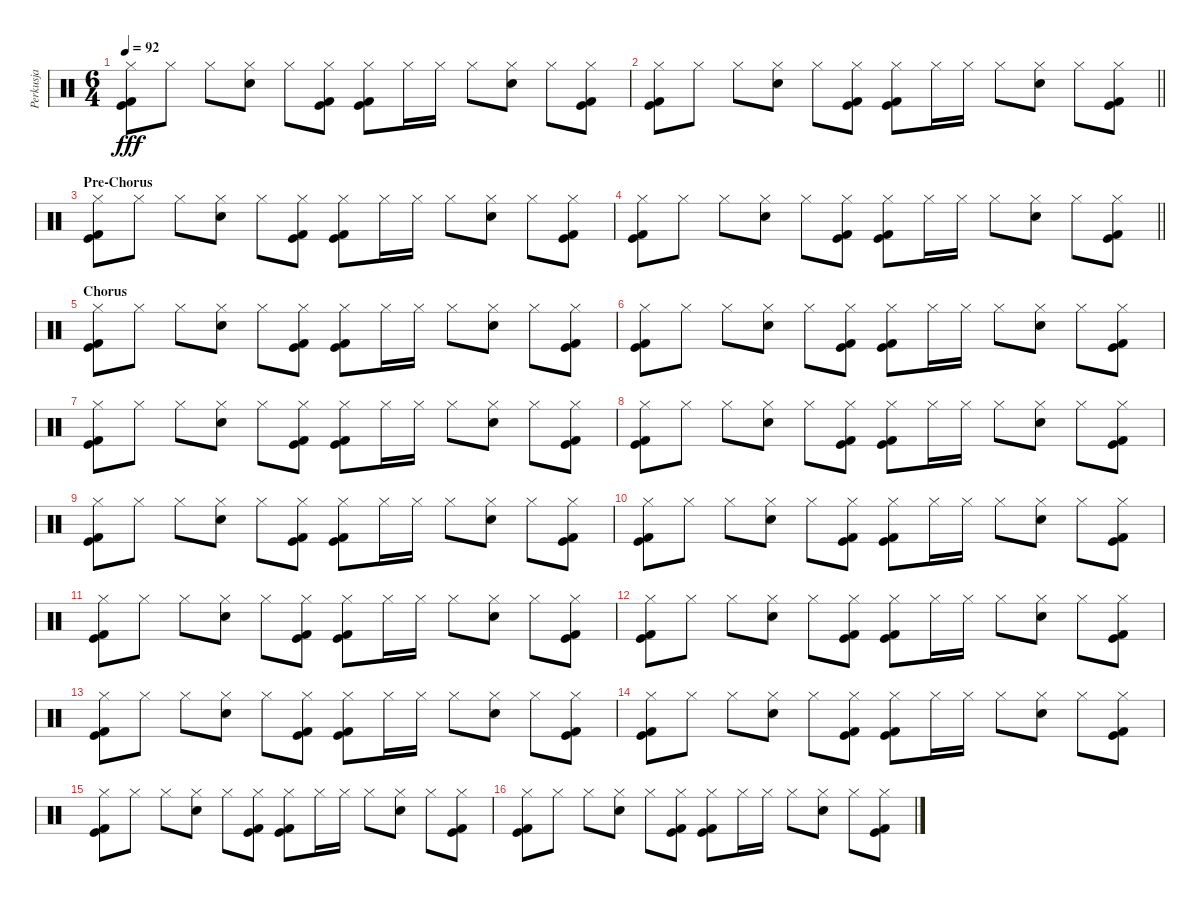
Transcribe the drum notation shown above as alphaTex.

\track ("Perkusja" "Perkusja") {instrument percussion}
\staff {score}
\articulation defaults
\ts (6 4)
\tempo 92
\clef neutral
\ks c
("Hi-Hat (closed)" "Kick (hit)" "Kick (hit) 2").8{dy fff} "Hi-Hat (closed)".8 "Hi-Hat (closed)".8 ("Hi-Hat (closed)" "Electric Snare (hit)").8 "Hi-Hat (closed)".8 ("Hi-Hat (closed)" "Kick (hit)" "Kick (hit) 2").8 ("Hi-Hat (closed)" "Kick (hit)" "Kick (hit) 2").8 "Hi-Hat (closed)".16 "Hi-Hat (closed)".16 "Hi-Hat (closed)".8 ("Hi-Hat (closed)" "Electric Snare (hit)").8 "Hi-Hat (closed)".8 ("Hi-Hat (closed)" "Kick (hit)" "Kick (hit) 2").8 |
\barLineRight lightlight
("Hi-Hat (closed)" "Kick (hit)" "Kick (hit) 2").8 "Hi-Hat (closed)".8 "Hi-Hat (closed)".8 ("Hi-Hat (closed)" "Electric Snare (hit)").8 "Hi-Hat (closed)".8 ("Hi-Hat (closed)" "Kick (hit)" "Kick (hit) 2").8 ("Hi-Hat (closed)" "Kick (hit)" "Kick (hit) 2").8 "Hi-Hat (closed)".16 "Hi-Hat (closed)".16 "Hi-Hat (closed)".8 ("Hi-Hat (closed)" "Electric Snare (hit)").8 "Hi-Hat (closed)".8 ("Hi-Hat (closed)" "Kick (hit)" "Kick (hit) 2").8 |
\section ("" "Pre-Chorus")
("Hi-Hat (closed)" "Kick (hit)" "Kick (hit) 2").8 "Hi-Hat (closed)".8 "Hi-Hat (closed)".8 ("Hi-Hat (closed)" "Electric Snare (hit)").8 "Hi-Hat (closed)".8 ("Hi-Hat (closed)" "Kick (hit)" "Kick (hit) 2").8 ("Hi-Hat (closed)" "Kick (hit)" "Kick (hit) 2").8 "Hi-Hat (closed)".16 "Hi-Hat (closed)".16 "Hi-Hat (closed)".8 ("Hi-Hat (closed)" "Electric Snare (hit)").8 "Hi-Hat (closed)".8 ("Hi-Hat (closed)" "Kick (hit)" "Kick (hit) 2").8 |
\barLineRight lightlight
("Hi-Hat (closed)" "Kick (hit)" "Kick (hit) 2").8 "Hi-Hat (closed)".8 "Hi-Hat (closed)".8 ("Hi-Hat (closed)" "Electric Snare (hit)").8 "Hi-Hat (closed)".8 ("Hi-Hat (closed)" "Kick (hit)" "Kick (hit) 2").8 ("Hi-Hat (closed)" "Kick (hit)" "Kick (hit) 2").8 "Hi-Hat (closed)".16 "Hi-Hat (closed)".16 "Hi-Hat (closed)".8 ("Hi-Hat (closed)" "Electric Snare (hit)").8 "Hi-Hat (closed)".8 ("Hi-Hat (closed)" "Kick (hit)" "Kick (hit) 2").8 |
\section ("" "Chorus")
("Hi-Hat (closed)" "Kick (hit)" "Kick (hit) 2").8 "Hi-Hat (closed)".8 "Hi-Hat (closed)".8 ("Hi-Hat (closed)" "Electric Snare (hit)").8 "Hi-Hat (closed)".8 ("Hi-Hat (closed)" "Kick (hit)" "Kick (hit) 2").8 ("Hi-Hat (closed)" "Kick (hit)" "Kick (hit) 2").8 "Hi-Hat (closed)".16 "Hi-Hat (closed)".16 "Hi-Hat (closed)".8 ("Hi-Hat (closed)" "Electric Snare (hit)").8 "Hi-Hat (closed)".8 ("Hi-Hat (closed)" "Kick (hit)" "Kick (hit) 2").8 |
("Hi-Hat (closed)" "Kick (hit)" "Kick (hit) 2").8 "Hi-Hat (closed)".8 "Hi-Hat (closed)".8 ("Hi-Hat (closed)" "Electric Snare (hit)").8 "Hi-Hat (closed)".8 ("Hi-Hat (closed)" "Kick (hit)" "Kick (hit) 2").8 ("Hi-Hat (closed)" "Kick (hit)" "Kick (hit) 2").8 "Hi-Hat (closed)".16 "Hi-Hat (closed)".16 "Hi-Hat (closed)".8 ("Hi-Hat (closed)" "Electric Snare (hit)").8 "Hi-Hat (closed)".8 ("Hi-Hat (closed)" "Kick (hit)" "Kick (hit) 2").8 |
("Hi-Hat (closed)" "Kick (hit)" "Kick (hit) 2").8 "Hi-Hat (closed)".8 "Hi-Hat (closed)".8 ("Hi-Hat (closed)" "Electric Snare (hit)").8 "Hi-Hat (closed)".8 ("Hi-Hat (closed)" "Kick (hit)" "Kick (hit) 2").8 ("Hi-Hat (closed)" "Kick (hit)" "Kick (hit) 2").8 "Hi-Hat (closed)".16 "Hi-Hat (closed)".16 "Hi-Hat (closed)".8 ("Hi-Hat (closed)" "Electric Snare (hit)").8 "Hi-Hat (closed)".8 ("Hi-Hat (closed)" "Kick (hit)" "Kick (hit) 2").8 |
("Hi-Hat (closed)" "Kick (hit)" "Kick (hit) 2").8 "Hi-Hat (closed)".8 "Hi-Hat (closed)".8 ("Hi-Hat (closed)" "Electric Snare (hit)").8 "Hi-Hat (closed)".8 ("Hi-Hat (closed)" "Kick (hit)" "Kick (hit) 2").8 ("Hi-Hat (closed)" "Kick (hit)" "Kick (hit) 2").8 "Hi-Hat (closed)".16 "Hi-Hat (closed)".16 "Hi-Hat (closed)".8 ("Hi-Hat (closed)" "Electric Snare (hit)").8 "Hi-Hat (closed)".8 ("Hi-Hat (closed)" "Kick (hit)" "Kick (hit) 2").8 |
("Hi-Hat (closed)" "Kick (hit)" "Kick (hit) 2").8 "Hi-Hat (closed)".8 "Hi-Hat (closed)".8 ("Hi-Hat (closed)" "Electric Snare (hit)").8 "Hi-Hat (closed)".8 ("Hi-Hat (closed)" "Kick (hit)" "Kick (hit) 2").8 ("Hi-Hat (closed)" "Kick (hit)" "Kick (hit) 2").8 "Hi-Hat (closed)".16 "Hi-Hat (closed)".16 "Hi-Hat (closed)".8 ("Hi-Hat (closed)" "Electric Snare (hit)").8 "Hi-Hat (closed)".8 ("Hi-Hat (closed)" "Kick (hit)" "Kick (hit) 2").8 |
("Hi-Hat (closed)" "Kick (hit)" "Kick (hit) 2").8 "Hi-Hat (closed)".8 "Hi-Hat (closed)".8 ("Hi-Hat (closed)" "Electric Snare (hit)").8 "Hi-Hat (closed)".8 ("Hi-Hat (closed)" "Kick (hit)" "Kick (hit) 2").8 ("Hi-Hat (closed)" "Kick (hit)" "Kick (hit) 2").8 "Hi-Hat (closed)".16 "Hi-Hat (closed)".16 "Hi-Hat (closed)".8 ("Hi-Hat (closed)" "Electric Snare (hit)").8 "Hi-Hat (closed)".8 ("Hi-Hat (closed)" "Kick (hit)" "Kick (hit) 2").8 |
("Hi-Hat (closed)" "Kick (hit)" "Kick (hit) 2").8 "Hi-Hat (closed)".8 "Hi-Hat (closed)".8 ("Hi-Hat (closed)" "Electric Snare (hit)").8 "Hi-Hat (closed)".8 ("Hi-Hat (closed)" "Kick (hit)" "Kick (hit) 2").8 ("Hi-Hat (closed)" "Kick (hit)" "Kick (hit) 2").8 "Hi-Hat (closed)".16 "Hi-Hat (closed)".16 "Hi-Hat (closed)".8 ("Hi-Hat (closed)" "Electric Snare (hit)").8 "Hi-Hat (closed)".8 ("Hi-Hat (closed)" "Kick (hit)" "Kick (hit) 2").8 |
("Hi-Hat (closed)" "Kick (hit)" "Kick (hit) 2").8 "Hi-Hat (closed)".8 "Hi-Hat (closed)".8 ("Hi-Hat (closed)" "Electric Snare (hit)").8 "Hi-Hat (closed)".8 ("Hi-Hat (closed)" "Kick (hit)" "Kick (hit) 2").8 ("Hi-Hat (closed)" "Kick (hit)" "Kick (hit) 2").8 "Hi-Hat (closed)".16 "Hi-Hat (closed)".16 "Hi-Hat (closed)".8 ("Hi-Hat (closed)" "Electric Snare (hit)").8 "Hi-Hat (closed)".8 ("Hi-Hat (closed)" "Kick (hit)" "Kick (hit) 2").8 |
("Hi-Hat (closed)" "Kick (hit)" "Kick (hit) 2").8 "Hi-Hat (closed)".8 "Hi-Hat (closed)".8 ("Hi-Hat (closed)" "Electric Snare (hit)").8 "Hi-Hat (closed)".8 ("Hi-Hat (closed)" "Kick (hit)" "Kick (hit) 2").8 ("Hi-Hat (closed)" "Kick (hit)" "Kick (hit) 2").8 "Hi-Hat (closed)".16 "Hi-Hat (closed)".16 "Hi-Hat (closed)".8 ("Hi-Hat (closed)" "Electric Snare (hit)").8 "Hi-Hat (closed)".8 ("Hi-Hat (closed)" "Kick (hit)" "Kick (hit) 2").8 |
("Hi-Hat (closed)" "Kick (hit)" "Kick (hit) 2").8 "Hi-Hat (closed)".8 "Hi-Hat (closed)".8 ("Hi-Hat (closed)" "Electric Snare (hit)").8 "Hi-Hat (closed)".8 ("Hi-Hat (closed)" "Kick (hit)" "Kick (hit) 2").8 ("Hi-Hat (closed)" "Kick (hit)" "Kick (hit) 2").8 "Hi-Hat (closed)".16 "Hi-Hat (closed)".16 "Hi-Hat (closed)".8 ("Hi-Hat (closed)" "Electric Snare (hit)").8 "Hi-Hat (closed)".8 ("Hi-Hat (closed)" "Kick (hit)" "Kick (hit) 2").8 |
("Hi-Hat (closed)" "Kick (hit)" "Kick (hit) 2").8 "Hi-Hat (closed)".8 "Hi-Hat (closed)".8 ("Hi-Hat (closed)" "Electric Snare (hit)").8 "Hi-Hat (closed)".8 ("Hi-Hat (closed)" "Kick (hit)" "Kick (hit) 2").8 ("Hi-Hat (closed)" "Kick (hit)" "Kick (hit) 2").8 "Hi-Hat (closed)".16 "Hi-Hat (closed)".16 "Hi-Hat (closed)".8 ("Hi-Hat (closed)" "Electric Snare (hit)").8 "Hi-Hat (closed)".8 ("Hi-Hat (closed)" "Kick (hit)" "Kick (hit) 2").8 |
("Hi-Hat (closed)" "Kick (hit)" "Kick (hit) 2").8 "Hi-Hat (closed)".8 "Hi-Hat (closed)".8 ("Hi-Hat (closed)" "Electric Snare (hit)").8 "Hi-Hat (closed)".8 ("Hi-Hat (closed)" "Kick (hit)" "Kick (hit) 2").8 ("Hi-Hat (closed)" "Kick (hit)" "Kick (hit) 2").8 "Hi-Hat (closed)".16 "Hi-Hat (closed)".16 "Hi-Hat (closed)".8 ("Hi-Hat (closed)" "Electric Snare (hit)").8 "Hi-Hat (closed)".8 ("Hi-Hat (closed)" "Kick (hit)" "Kick (hit) 2").8
